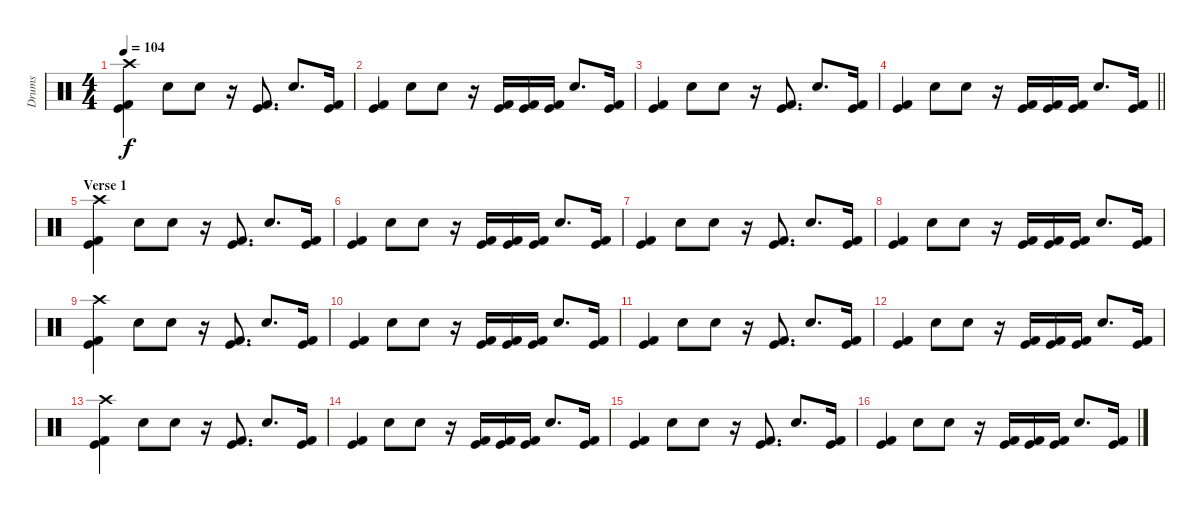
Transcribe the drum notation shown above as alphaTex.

\track ("Drums" "Drums") {instrument percussion}
\staff {score}
\articulation defaults
\ts (4 4)
\tempo 104
\clef neutral
\ks c
("Crash high (hit)" "Kick (hit) 2" "Kick (hit)").4{dy f} "Snare (hit) 2".8 "Snare (hit) 2".8 r.16 ("Kick (hit) 2" "Kick (hit)").8{d} "Snare (hit) 2".8{d} ("Kick (hit) 2" "Kick (hit)").16 |
("Kick (hit) 2" "Kick (hit)").4 "Snare (hit) 2".8 "Snare (hit) 2".8 r.16 ("Kick (hit) 2" "Kick (hit)").16 ("Kick (hit) 2" "Kick (hit)").16 ("Kick (hit) 2" "Kick (hit)").16 "Snare (hit) 2".8{d} ("Kick (hit) 2" "Kick (hit)").16 |
("Kick (hit) 2" "Kick (hit)").4 "Snare (hit) 2".8 "Snare (hit) 2".8 r.16 ("Kick (hit) 2" "Kick (hit)").8{d} "Snare (hit) 2".8{d} ("Kick (hit) 2" "Kick (hit)").16 |
\barLineRight lightlight
("Kick (hit) 2" "Kick (hit)").4 "Snare (hit) 2".8 "Snare (hit) 2".8 r.16 ("Kick (hit) 2" "Kick (hit)").16 ("Kick (hit) 2" "Kick (hit)").16 ("Kick (hit) 2" "Kick (hit)").16 "Snare (hit) 2".8{d} ("Kick (hit) 2" "Kick (hit)").16 |
\section ("" "Verse 1")
("Crash high (hit)" "Kick (hit) 2" "Kick (hit)").4 "Snare (hit) 2".8 "Snare (hit) 2".8 r.16 ("Kick (hit) 2" "Kick (hit)").8{d} "Snare (hit) 2".8{d} ("Kick (hit) 2" "Kick (hit)").16 |
("Kick (hit) 2" "Kick (hit)").4 "Snare (hit) 2".8 "Snare (hit) 2".8 r.16 ("Kick (hit) 2" "Kick (hit)").16 ("Kick (hit) 2" "Kick (hit)").16 ("Kick (hit) 2" "Kick (hit)").16 "Snare (hit) 2".8{d} ("Kick (hit) 2" "Kick (hit)").16 |
("Kick (hit) 2" "Kick (hit)").4 "Snare (hit) 2".8 "Snare (hit) 2".8 r.16 ("Kick (hit) 2" "Kick (hit)").8{d} "Snare (hit) 2".8{d} ("Kick (hit) 2" "Kick (hit)").16 |
("Kick (hit) 2" "Kick (hit)").4 "Snare (hit) 2".8 "Snare (hit) 2".8 r.16 ("Kick (hit) 2" "Kick (hit)").16 ("Kick (hit) 2" "Kick (hit)").16 ("Kick (hit) 2" "Kick (hit)").16 "Snare (hit) 2".8{d} ("Kick (hit) 2" "Kick (hit)").16 |
("Crash high (hit)" "Kick (hit) 2" "Kick (hit)").4 "Snare (hit) 2".8 "Snare (hit) 2".8 r.16 ("Kick (hit) 2" "Kick (hit)").8{d} "Snare (hit) 2".8{d} ("Kick (hit) 2" "Kick (hit)").16 |
("Kick (hit) 2" "Kick (hit)").4 "Snare (hit) 2".8 "Snare (hit) 2".8 r.16 ("Kick (hit) 2" "Kick (hit)").16 ("Kick (hit) 2" "Kick (hit)").16 ("Kick (hit) 2" "Kick (hit)").16 "Snare (hit) 2".8{d} ("Kick (hit) 2" "Kick (hit)").16 |
("Kick (hit) 2" "Kick (hit)").4 "Snare (hit) 2".8 "Snare (hit) 2".8 r.16 ("Kick (hit) 2" "Kick (hit)").8{d} "Snare (hit) 2".8{d} ("Kick (hit) 2" "Kick (hit)").16 |
("Kick (hit) 2" "Kick (hit)").4 "Snare (hit) 2".8 "Snare (hit) 2".8 r.16 ("Kick (hit) 2" "Kick (hit)").16 ("Kick (hit) 2" "Kick (hit)").16 ("Kick (hit) 2" "Kick (hit)").16 "Snare (hit) 2".8{d} ("Kick (hit) 2" "Kick (hit)").16 |
("Crash high (hit)" "Kick (hit) 2" "Kick (hit)").4 "Snare (hit) 2".8 "Snare (hit) 2".8 r.16 ("Kick (hit) 2" "Kick (hit)").8{d} "Snare (hit) 2".8{d} ("Kick (hit) 2" "Kick (hit)").16 |
("Kick (hit) 2" "Kick (hit)").4 "Snare (hit) 2".8 "Snare (hit) 2".8 r.16 ("Kick (hit) 2" "Kick (hit)").16 ("Kick (hit) 2" "Kick (hit)").16 ("Kick (hit) 2" "Kick (hit)").16 "Snare (hit) 2".8{d} ("Kick (hit) 2" "Kick (hit)").16 |
("Kick (hit) 2" "Kick (hit)").4 "Snare (hit) 2".8 "Snare (hit) 2".8 r.16 ("Kick (hit) 2" "Kick (hit)").8{d} "Snare (hit) 2".8{d} ("Kick (hit) 2" "Kick (hit)").16 |
("Kick (hit) 2" "Kick (hit)").4 "Snare (hit) 2".8 "Snare (hit) 2".8 r.16 ("Kick (hit) 2" "Kick (hit)").16 ("Kick (hit) 2" "Kick (hit)").16 ("Kick (hit) 2" "Kick (hit)").16 "Snare (hit) 2".8{d} ("Kick (hit) 2" "Kick (hit)").16
